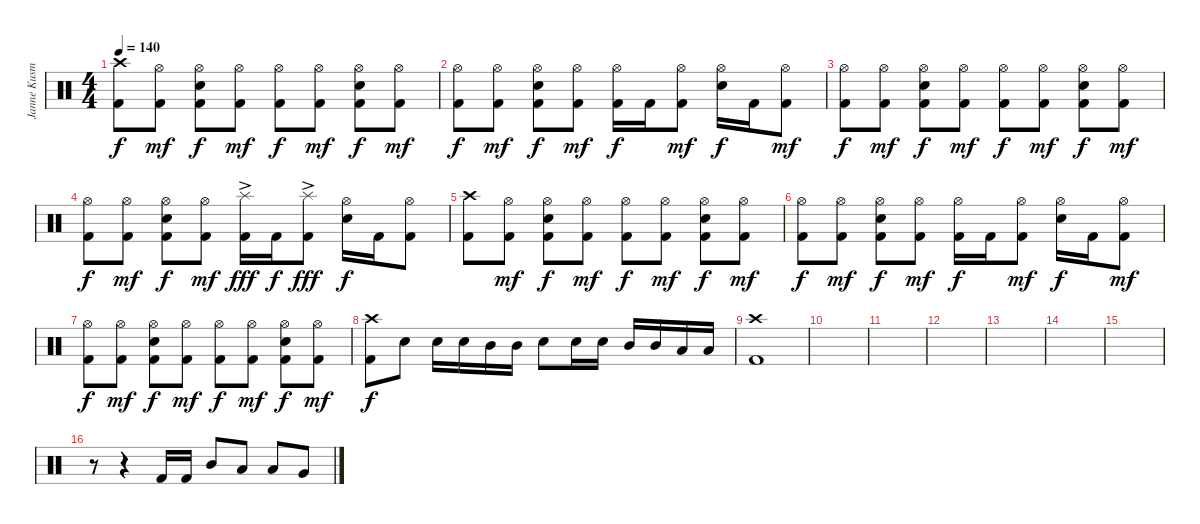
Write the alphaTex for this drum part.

\track ("Janne Kusmin" "Janne Kusm") {instrument percussion}
\staff {score}
\articulation defaults
\ts (4 4)
\tempo 140
\clef neutral
\ks c
("Crash high (hit)" "Kick (hit) 2").8{dy f} ("Hi-Hat (open)" "Kick (hit) 2").8{dy mf} ("Hi-Hat (open)" "Electric Snare (hit)" "Kick (hit) 2").8{dy f} ("Hi-Hat (open)" "Kick (hit) 2").8{dy mf} ("Hi-Hat (open)" "Kick (hit) 2").8{dy f} ("Hi-Hat (open)" "Kick (hit) 2").8{dy mf} ("Hi-Hat (open)" "Electric Snare (hit)" "Kick (hit) 2").8{dy f} ("Hi-Hat (open)" "Kick (hit) 2").8{dy mf} |
("Hi-Hat (open)" "Kick (hit) 2").8{dy f} ("Hi-Hat (open)" "Kick (hit) 2").8{dy mf} ("Hi-Hat (open)" "Electric Snare (hit)" "Kick (hit) 2").8{dy f} ("Hi-Hat (open)" "Kick (hit) 2").8{dy mf} ("Hi-Hat (open)" "Kick (hit) 2").16{dy f} "Kick (hit) 2".16 ("Hi-Hat (open)" "Kick (hit) 2").8{dy mf} ("Hi-Hat (open)" "Electric Snare (hit)").16{dy f} "Kick (hit) 2".16 ("Hi-Hat (open)" "Kick (hit) 2").8{dy mf} |
("Hi-Hat (open)" "Kick (hit) 2").8{dy f} ("Hi-Hat (open)" "Kick (hit) 2").8{dy mf} ("Hi-Hat (open)" "Electric Snare (hit)" "Kick (hit) 2").8{dy f} ("Hi-Hat (open)" "Kick (hit) 2").8{dy mf} ("Hi-Hat (open)" "Kick (hit) 2").8{dy f} ("Hi-Hat (open)" "Kick (hit) 2").8{dy mf} ("Hi-Hat (open)" "Electric Snare (hit)" "Kick (hit) 2").8{dy f} ("Hi-Hat (open)" "Kick (hit) 2").8{dy mf} |
("Hi-Hat (open)" "Kick (hit) 2").8{dy f} ("Hi-Hat (open)" "Kick (hit) 2").8{dy mf} ("Hi-Hat (open)" "Electric Snare (hit)" "Kick (hit) 2").8{dy f} ("Hi-Hat (open)" "Kick (hit) 2").8{dy mf} ("Splash (hit)"{ac} "Kick (hit) 2").16{dy fff} "Kick (hit) 2".16{dy f} ("Splash (hit)"{ac} "Kick (hit) 2").8{dy fff} ("Hi-Hat (open)" "Electric Snare (hit)").16{dy f} "Kick (hit) 2".16 ("Hi-Hat (open)" "Kick (hit) 2").8 |
("Crash high (hit)" "Kick (hit) 2").8 ("Hi-Hat (open)" "Kick (hit) 2").8{dy mf} ("Hi-Hat (open)" "Electric Snare (hit)" "Kick (hit) 2").8{dy f} ("Hi-Hat (open)" "Kick (hit) 2").8{dy mf} ("Hi-Hat (open)" "Kick (hit) 2").8{dy f} ("Hi-Hat (open)" "Kick (hit) 2").8{dy mf} ("Hi-Hat (open)" "Electric Snare (hit)" "Kick (hit) 2").8{dy f} ("Hi-Hat (open)" "Kick (hit) 2").8{dy mf} |
("Hi-Hat (open)" "Kick (hit) 2").8{dy f} ("Hi-Hat (open)" "Kick (hit) 2").8{dy mf} ("Hi-Hat (open)" "Electric Snare (hit)" "Kick (hit) 2").8{dy f} ("Hi-Hat (open)" "Kick (hit) 2").8{dy mf} ("Hi-Hat (open)" "Kick (hit) 2").16{dy f} "Kick (hit) 2".16 ("Hi-Hat (open)" "Kick (hit) 2").8{dy mf} ("Hi-Hat (open)" "Electric Snare (hit)").16{dy f} "Kick (hit) 2".16 ("Hi-Hat (open)" "Kick (hit) 2").8{dy mf} |
("Hi-Hat (open)" "Kick (hit) 2").8{dy f} ("Hi-Hat (open)" "Kick (hit) 2").8{dy mf} ("Hi-Hat (open)" "Electric Snare (hit)" "Kick (hit) 2").8{dy f} ("Hi-Hat (open)" "Kick (hit) 2").8{dy mf} ("Hi-Hat (open)" "Kick (hit) 2").8{dy f} ("Hi-Hat (open)" "Kick (hit) 2").8{dy mf} ("Hi-Hat (open)" "Electric Snare (hit)" "Kick (hit) 2").8{dy f} ("Hi-Hat (open)" "Kick (hit) 2").8{dy mf} |
("Crash high (hit)" "Kick (hit) 2").8{dy f} "Electric Snare (hit)".8 "Electric Snare (hit)".16 "Electric Snare (hit)".16 "Mid Tom (hit)".16 "Mid Tom (hit)".16 "Electric Snare (hit)".8 "Electric Snare (hit)".16 "Electric Snare (hit)".16 "Mid Tom (hit)".16 "Mid Tom (hit)".16 "Low Tom (hit)".16 "Low Tom (hit)".16 |
("Crash high (hit)" "Kick (hit) 2").1 |
|
|
|
|
|
|
r.8 r.4 "Kick (hit) 2".16 "Kick (hit) 2".16 "Mid Tom (hit)".8 "Low Tom (hit)".8 "Low Tom (hit)".8 "Very Low Tom (hit)".8
